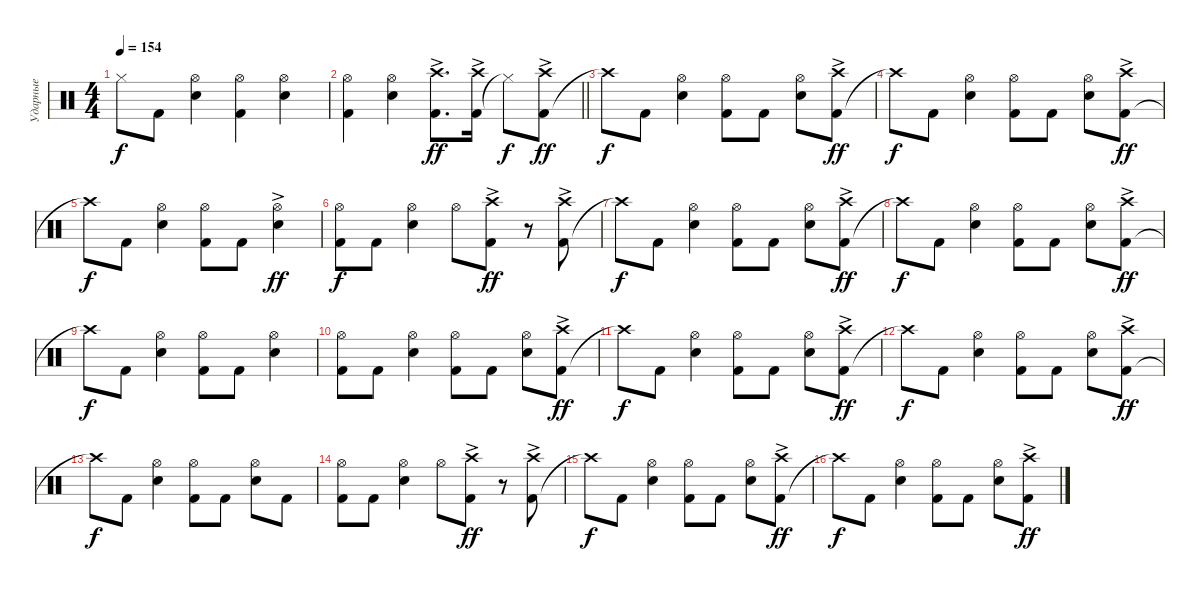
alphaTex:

\track ("Ударные" "Ударные") {instrument percussion}
\staff {score}
\articulation defaults
\ts (4 4)
\tempo 154
\clef neutral
\ks c "Hi-Hat (closed)"{t}.8{dy f} "Kick (hit) 2".8
("Snare (hit) 2" "Hi-Hat (open)").4 ("Kick (hit) 2" "Hi-Hat (open)").4 ("Snare (hit) 2" "Hi-Hat (open)").4 |
\barLineRight lightlight
("Kick (hit) 2" "Hi-Hat (open)").4 ("Snare (hit) 2" "Hi-Hat (open)").4 ("Kick (hit) 2" "Crash high (hit)"{ac}).8{d dy ff} ("Kick (hit) 2" "Crash high (hit)"{ac}).16 "Hi-Hat (closed)"{t}.8{dy f} ("Kick (hit) 2" "Crash high (hit)"{ac}).8{dy ff} |
"Crash high (hit)"{t}.8{dy f} "Kick (hit) 2".8 ("Snare (hit) 2" "Hi-Hat (open)").4 ("Kick (hit) 2" "Hi-Hat (open)").8 "Kick (hit) 2".8 ("Snare (hit) 2" "Hi-Hat (open)").8 ("Kick (hit) 2" "Crash high (hit)"{ac}).8{dy ff} |
"Crash high (hit)"{t}.8{dy f} "Kick (hit) 2".8 ("Snare (hit) 2" "Hi-Hat (open)").4 ("Kick (hit) 2" "Hi-Hat (open)").8 "Kick (hit) 2".8 ("Snare (hit) 2" "Hi-Hat (open)").8 ("Kick (hit) 2" "Crash high (hit)"{ac}).8{dy ff} |
"Crash high (hit)"{t}.8{dy f} "Kick (hit) 2".8 ("Snare (hit) 2" "Hi-Hat (open)").4 ("Kick (hit) 2" "Hi-Hat (open)").8 "Kick (hit) 2".8 ("Snare (hit) 2" "Hi-Hat (open)"{ac}).4{dy ff} |
("Kick (hit) 2" "Hi-Hat (open)").8{dy f} "Kick (hit) 2".8 ("Snare (hit) 2" "Hi-Hat (open)").4 "Hi-Hat (open)".8 ("Kick (hit) 2" "Crash high (hit)"{ac}).8{dy ff} r.8 ("Kick (hit) 2" "Crash high (hit)"{ac}).8 |
"Crash high (hit)"{t}.8{dy f} "Kick (hit) 2".8 ("Snare (hit) 2" "Hi-Hat (open)").4 ("Kick (hit) 2" "Hi-Hat (open)").8 "Kick (hit) 2".8 ("Snare (hit) 2" "Hi-Hat (open)").8 ("Kick (hit) 2" "Crash high (hit)"{ac}).8{dy ff} |
"Crash high (hit)"{t}.8{dy f} "Kick (hit) 2".8 ("Snare (hit) 2" "Hi-Hat (open)").4 ("Kick (hit) 2" "Hi-Hat (open)").8 "Kick (hit) 2".8 ("Snare (hit) 2" "Hi-Hat (open)").8 ("Kick (hit) 2" "Crash high (hit)"{ac}).8{dy ff} |
"Crash high (hit)"{t}.8{dy f} "Kick (hit) 2".8 ("Snare (hit) 2" "Hi-Hat (open)").4 ("Kick (hit) 2" "Hi-Hat (open)").8 "Kick (hit) 2".8 ("Snare (hit) 2" "Hi-Hat (open)").4 |
("Kick (hit) 2" "Hi-Hat (open)").8 "Kick (hit) 2".8 ("Snare (hit) 2" "Hi-Hat (open)").4 ("Kick (hit) 2" "Hi-Hat (open)").8 "Kick (hit) 2".8 ("Snare (hit) 2" "Hi-Hat (open)").8 ("Kick (hit) 2" "Crash high (hit)"{ac}).8{dy ff} |
"Crash high (hit)"{t}.8{dy f} "Kick (hit) 2".8 ("Snare (hit) 2" "Hi-Hat (open)").4 ("Kick (hit) 2" "Hi-Hat (open)").8 "Kick (hit) 2".8 ("Snare (hit) 2" "Hi-Hat (open)").8 ("Kick (hit) 2" "Crash high (hit)"{ac}).8{dy ff} |
"Crash high (hit)"{t}.8{dy f} "Kick (hit) 2".8 ("Snare (hit) 2" "Hi-Hat (open)").4 ("Kick (hit) 2" "Hi-Hat (open)").8 "Kick (hit) 2".8 ("Snare (hit) 2" "Hi-Hat (open)").8 ("Kick (hit) 2" "Crash high (hit)"{ac}).8{dy ff} |
"Crash high (hit)"{t}.8{dy f} "Kick (hit) 2".8 ("Snare (hit) 2" "Hi-Hat (open)").4 ("Kick (hit) 2" "Hi-Hat (open)").8 "Kick (hit) 2".8 ("Snare (hit) 2" "Hi-Hat (open)").8 "Kick (hit) 2".8 |
("Kick (hit) 2" "Hi-Hat (open)").8 "Kick (hit) 2".8 ("Snare (hit) 2" "Hi-Hat (open)").4 "Hi-Hat (open)".8 ("Kick (hit) 2" "Crash high (hit)"{ac}).8{dy ff} r.8 ("Kick (hit) 2" "Crash high (hit)"{ac}).8 |
"Crash high (hit)"{t}.8{dy f} "Kick (hit) 2".8 ("Snare (hit) 2" "Hi-Hat (open)").4 ("Kick (hit) 2" "Hi-Hat (open)").8 "Kick (hit) 2".8 ("Snare (hit) 2" "Hi-Hat (open)").8 ("Kick (hit) 2" "Crash high (hit)"{ac}).8{dy ff} |
"Crash high (hit)"{t}.8{dy f} "Kick (hit) 2".8 ("Snare (hit) 2" "Hi-Hat (open)").4 ("Kick (hit) 2" "Hi-Hat (open)").8 "Kick (hit) 2".8 ("Snare (hit) 2" "Hi-Hat (open)").8 ("Kick (hit) 2" "Crash high (hit)"{ac}).8{dy ff}
